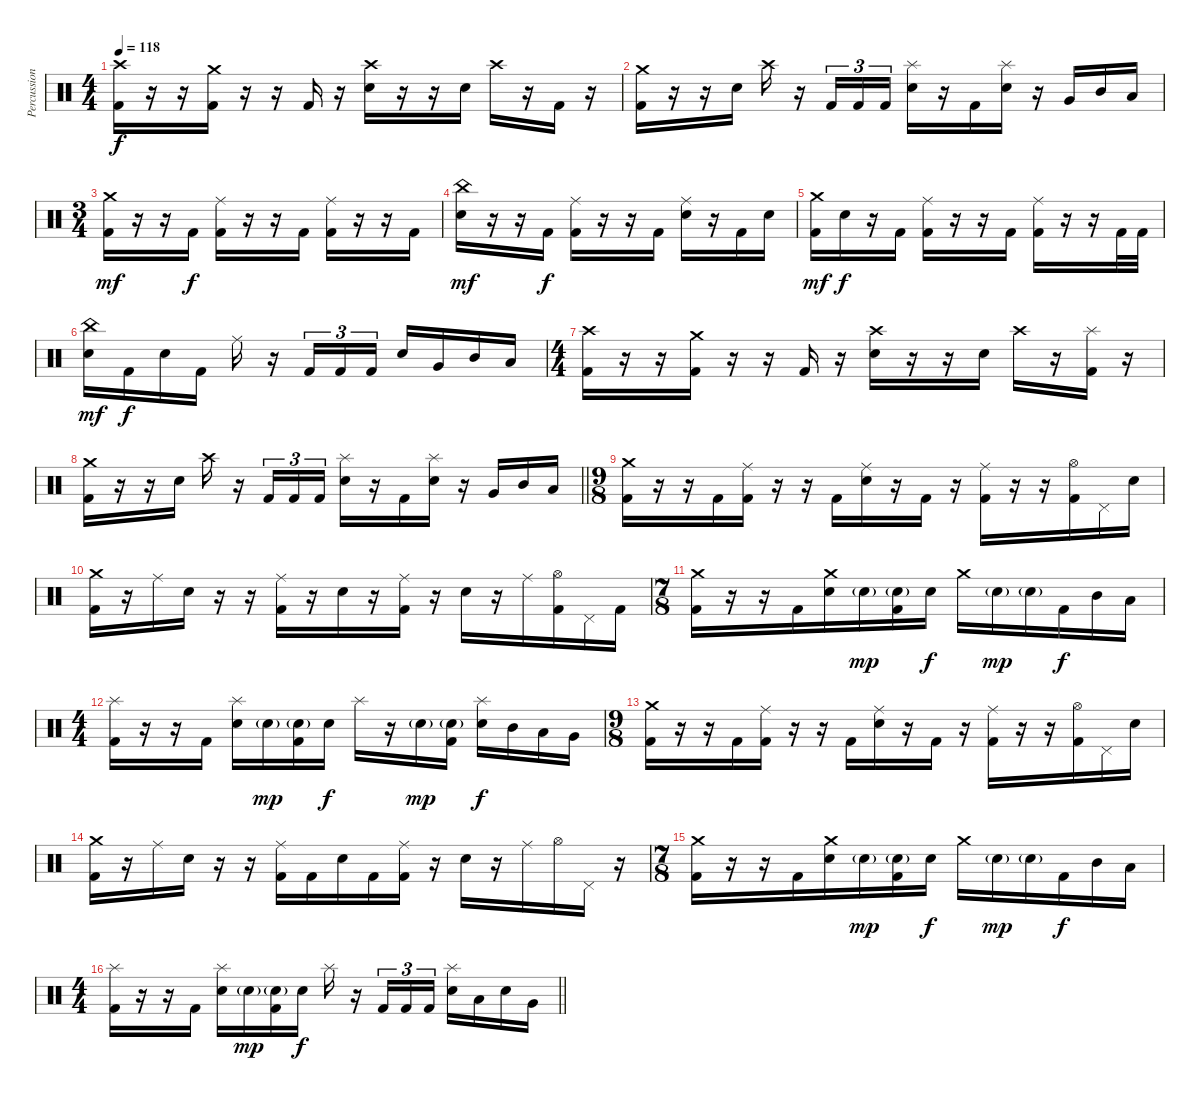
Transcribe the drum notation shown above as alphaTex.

\track ("Percussions" "Percussion") {instrument percussion}
\staff {score}
\articulation defaults
\ts (4 4)
\tempo 118
\clef neutral
\ks c
("Crash high (hit)" "Kick (hit) 2").16{dy f} r.16 r.16 ("Crash medium (hit)" "Kick (hit) 2").16 r.16 r.16 "Kick (hit) 2".16 r.16 ("Crash high (hit)" "Electric Snare (hit)").16 r.16 r.16 "Electric Snare (hit)".16 "Crash high (hit)".16 r.16 "Kick (hit) 2".16 r.16 |
("Crash medium (hit)" "Kick (hit) 2").16 r.16 r.16 "Electric Snare (hit)".16 "Crash high (hit)".16 r.16 "Kick (hit) 2".16{tu (3 2)} "Kick (hit) 2".16{tu (3 2)} "Kick (hit) 2".16{tu (3 2)} ("Splash (hit)" "Electric Snare (hit)").16 r.16 "Kick (hit) 2".16 ("Splash (hit)" "Electric Snare (hit)").16 r.16 "Very Low Tom (hit)".16 "Mid Tom (hit)".16 "Low Floor Tom (hit)".16 |
\ts (3 4)
("Crash medium (hit)" "Kick (hit) 2").16{dy mf} r.16 r.16 "Kick (hit) 2".16{dy f} ("Ride (middle)" "Kick (hit) 2").16 r.16 r.16 "Kick (hit) 2".16 ("Ride (middle)" "Kick (hit) 2").16 r.16 r.16 "Kick (hit) 2".16 |
("China (hit)" "Electric Snare (hit)").16{dy mf} r.16 r.16 "Kick (hit) 2".16{dy f} ("Ride (middle)" "Kick (hit) 2").16 r.16 r.16 "Kick (hit) 2".16 ("Ride (middle)" "Electric Snare (hit)").16 r.16 "Kick (hit) 2".16 "Electric Snare (hit)".16 |
("Crash medium (hit)" "Kick (hit) 2").16{dy mf} "Electric Snare (hit)".16{dy f} r.16 "Kick (hit) 2".16 ("Ride (middle)" "Kick (hit) 2").16 r.16 r.16 "Kick (hit) 2".16 ("Ride (middle)" "Kick (hit) 2").16 r.16 r.16 "Kick (hit) 2".32 "Kick (hit) 2".32 |
("China (hit)" "Electric Snare (hit)").16{dy mf} "Kick (hit) 2".16{dy f} "Electric Snare (hit)".16 "Kick (hit) 2".16 "Ride (middle)".16 r.16 "Kick (hit) 2".16{tu (3 2)} "Kick (hit) 2".16{tu (3 2)} "Kick (hit) 2".16{tu (3 2)} "Electric Snare (hit)".16 "Very Low Tom (hit)".16 "Mid Tom (hit)".16 "Low Floor Tom (hit)".16 |
\ts (4 4)
("Crash high (hit)" "Kick (hit) 2").16 r.16 r.16 ("Crash medium (hit)" "Kick (hit) 2").16 r.16 r.16 "Kick (hit) 2".16 r.16 ("Crash high (hit)" "Electric Snare (hit)").16 r.16 r.16 "Electric Snare (hit)".16 "Crash high (hit)".16 r.16 ("Splash (hit)" "Kick (hit) 2").16 r.16 |
\barLineRight lightlight
("Crash medium (hit)" "Kick (hit) 2").16 r.16 r.16 "Electric Snare (hit)".16 "Crash high (hit)".16 r.16 "Kick (hit) 2".16{tu (3 2)} "Kick (hit) 2".16{tu (3 2)} "Kick (hit) 2".16{tu (3 2)} ("Splash (hit)" "Electric Snare (hit)").16 r.16 "Kick (hit) 2".16 ("Splash (hit)" "Electric Snare (hit)").16 r.16 "Very Low Tom (hit)".16 "Mid Tom (hit)".16 "Low Floor Tom (hit)".16 |
\ts (9 8)
\section ("" "")
("Crash medium (hit)" "Kick (hit) 2").16 r.16 r.16 "Kick (hit) 2".16 ("Ride (middle)" "Kick (hit) 2").16 r.16 r.16 "Kick (hit) 2".16 ("Ride (middle)" "Electric Snare (hit)").16 r.16 "Kick (hit) 2".16 r.16 ("Ride (middle)" "Kick (hit) 2").16 r.16 r.16 ("Hi-Hat (open)" "Kick (hit) 2").16 "Pedal Hi-Hat (hit)".16 "Electric Snare (hit)".16 |
("Crash medium (hit)" "Kick (hit) 2").16 r.16 "Ride (middle)".16 "Electric Snare (hit)".16 r.16 r.16 ("Ride (middle)" "Kick (hit) 2").16 r.16 "Electric Snare (hit)".16 r.16 ("Ride (middle)" "Kick (hit) 2").16 r.16 "Electric Snare (hit)".16 r.16 "Ride (middle)".16 ("Hi-Hat (open)" "Kick (hit) 2").16 "Pedal Hi-Hat (hit)".16 "Kick (hit) 2".16 |
\ts (7 8)
("Crash medium (hit)" "Kick (hit) 2").16 r.16 r.16 "Kick (hit) 2".16 ("Crash medium (hit)" "Electric Snare (hit)").16 "Electric Snare (hit)"{g}.16{dy mp} ("Electric Snare (hit)"{g} "Kick (hit) 2").16 "Electric Snare (hit)".16{dy f} "Crash medium (hit)".16 "Electric Snare (hit)"{g}.16{dy mp} "Electric Snare (hit)"{g}.16 "Kick (hit) 2".16{dy f} "Mid Tom (hit)".16 "Low Tom (hit)".16 |
\ts (4 4)
("Splash (hit)" "Kick (hit) 2").16 r.16 r.16 "Kick (hit) 2".16 ("Splash (hit)" "Electric Snare (hit)").16 "Electric Snare (hit)"{g}.16{dy mp} ("Electric Snare (hit)"{g} "Kick (hit) 2").16 "Electric Snare (hit)".16{dy f} "Splash (hit)".16 r.16 "Electric Snare (hit)"{g}.16{dy mp} ("Electric Snare (hit)"{g} "Kick (hit) 2").16 ("Splash (hit)" "Electric Snare (hit)").16{dy f} "Mid Tom (hit)".16 "Low Tom (hit)".16 "Very Low Tom (hit)".16 |
\ts (9 8)
("Crash medium (hit)" "Kick (hit) 2").16 r.16 r.16 "Kick (hit) 2".16 ("Ride (middle)" "Kick (hit) 2").16 r.16 r.16 "Kick (hit) 2".16 ("Ride (middle)" "Electric Snare (hit)").16 r.16 "Kick (hit) 2".16 r.16 ("Ride (middle)" "Kick (hit) 2").16 r.16 r.16 ("Hi-Hat (open)" "Kick (hit) 2").16 "Pedal Hi-Hat (hit)".16 "Electric Snare (hit)".16 |
("Crash medium (hit)" "Kick (hit) 2").16 r.16 "Ride (middle)".16 "Electric Snare (hit)".16 r.16 r.16 ("Ride (middle)" "Kick (hit) 2").16 "Kick (hit) 2".16 "Electric Snare (hit)".16 "Kick (hit) 2".16 ("Ride (middle)" "Kick (hit) 2").16 r.16 "Electric Snare (hit)".16 r.16 "Ride (middle)".16 "Hi-Hat (open)".16 "Pedal Hi-Hat (hit)".16 r.16 |
\ts (7 8)
("Crash medium (hit)" "Kick (hit) 2").16 r.16 r.16 "Kick (hit) 2".16 ("Crash medium (hit)" "Electric Snare (hit)").16 "Electric Snare (hit)"{g}.16{dy mp} ("Electric Snare (hit)"{g} "Kick (hit) 2").16 "Electric Snare (hit)".16{dy f} "Crash medium (hit)".16 "Electric Snare (hit)"{g}.16{dy mp} "Electric Snare (hit)"{g}.16 "Kick (hit) 2".16{dy f} "Mid Tom (hit)".16 "Low Tom (hit)".16 |
\ts (4 4)
\barLineRight lightlight
("Splash (hit)" "Kick (hit) 2").16 r.16 r.16 "Kick (hit) 2".16 ("Splash (hit)" "Electric Snare (hit)").16 "Electric Snare (hit)"{g}.16{dy mp} ("Electric Snare (hit)"{g} "Kick (hit) 2").16 "Electric Snare (hit)".16{dy f} "Splash (hit)".16 r.16 "Kick (hit) 2".16{tu (3 2)} "Kick (hit) 2".16{tu (3 2)} "Kick (hit) 2".16{tu (3 2)} ("Splash (hit)" "Electric Snare (hit)").16 "Low Tom (hit)".16 "Electric Snare (hit)".16 "Very Low Tom (hit)".16
